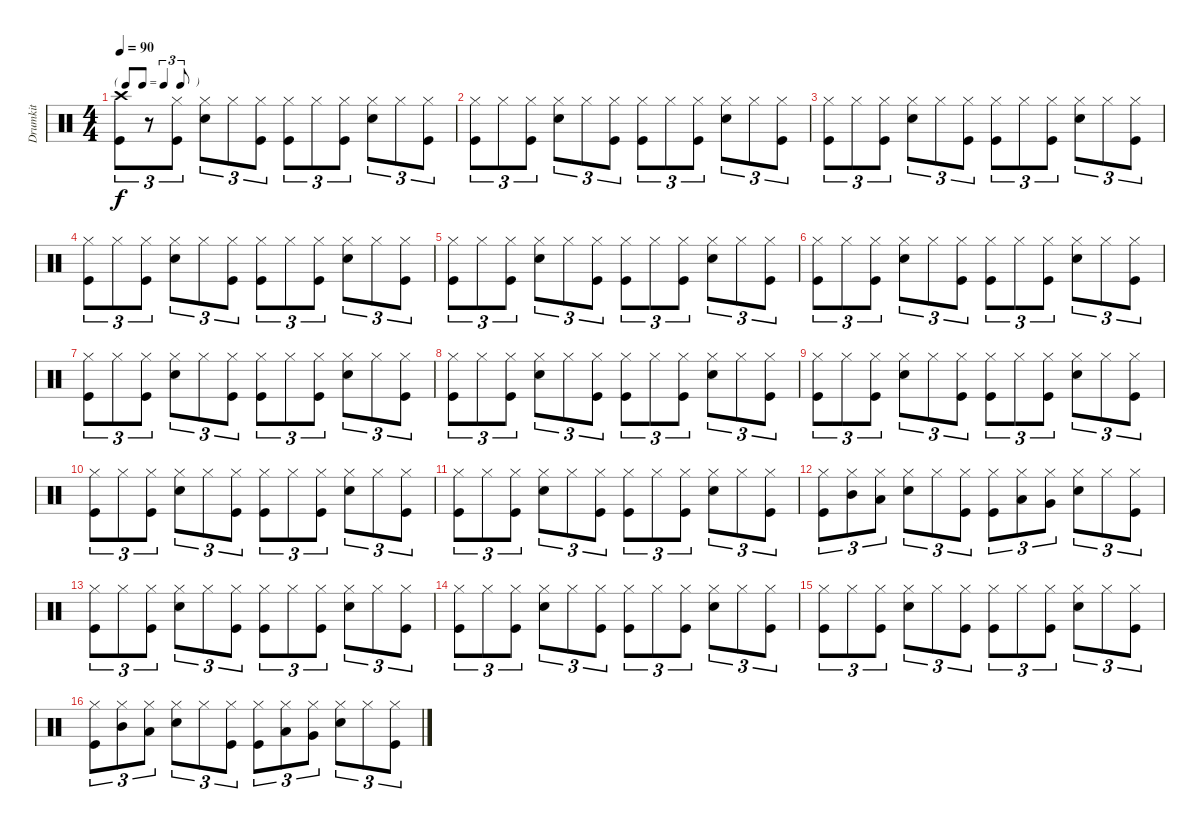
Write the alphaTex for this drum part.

\track ("Drumkit" "Drumkit") {instrument percussion}
\staff {score}
\articulation defaults
\ts (4 4)
\tf triplet8th
\tempo 90
\clef neutral
\ks c
("Crash high (hit)" "Kick (hit)").8{tu (3 2) dy f} r.8{tu (3 2)} ("Hi-Hat (closed)" "Kick (hit)").8{tu (3 2)} ("Hi-Hat (closed)" "Snare (hit) 2").8{tu (3 2)} "Hi-Hat (closed)".8{tu (3 2)} ("Hi-Hat (closed)" "Kick (hit)").8{tu (3 2)} ("Hi-Hat (closed)" "Kick (hit)").8{tu (3 2)} "Hi-Hat (closed)".8{tu (3 2)} ("Hi-Hat (closed)" "Kick (hit)").8{tu (3 2)} ("Hi-Hat (closed)" "Snare (hit) 2").8{tu (3 2)} "Hi-Hat (closed)".8{tu (3 2)} ("Hi-Hat (closed)" "Kick (hit)").8{tu (3 2)} |
("Hi-Hat (closed)" "Kick (hit)").8{tu (3 2)} "Hi-Hat (closed)".8{tu (3 2)} ("Hi-Hat (closed)" "Kick (hit)").8{tu (3 2)} ("Hi-Hat (closed)" "Snare (hit) 2").8{tu (3 2)} "Hi-Hat (closed)".8{tu (3 2)} ("Hi-Hat (closed)" "Kick (hit)").8{tu (3 2)} ("Hi-Hat (closed)" "Kick (hit)").8{tu (3 2)} "Hi-Hat (closed)".8{tu (3 2)} ("Hi-Hat (closed)" "Kick (hit)").8{tu (3 2)} ("Hi-Hat (closed)" "Snare (hit) 2").8{tu (3 2)} "Hi-Hat (closed)".8{tu (3 2)} ("Hi-Hat (closed)" "Kick (hit)").8{tu (3 2)} |
("Hi-Hat (closed)" "Kick (hit)").8{tu (3 2)} "Hi-Hat (closed)".8{tu (3 2)} ("Hi-Hat (closed)" "Kick (hit)").8{tu (3 2)} ("Hi-Hat (closed)" "Snare (hit) 2").8{tu (3 2)} "Hi-Hat (closed)".8{tu (3 2)} ("Hi-Hat (closed)" "Kick (hit)").8{tu (3 2)} ("Hi-Hat (closed)" "Kick (hit)").8{tu (3 2)} "Hi-Hat (closed)".8{tu (3 2)} ("Hi-Hat (closed)" "Kick (hit)").8{tu (3 2)} ("Hi-Hat (closed)" "Snare (hit) 2").8{tu (3 2)} "Hi-Hat (closed)".8{tu (3 2)} ("Hi-Hat (closed)" "Kick (hit)").8{tu (3 2)} |
("Hi-Hat (closed)" "Kick (hit)").8{tu (3 2)} "Hi-Hat (closed)".8{tu (3 2)} ("Hi-Hat (closed)" "Kick (hit)").8{tu (3 2)} ("Hi-Hat (closed)" "Snare (hit) 2").8{tu (3 2)} "Hi-Hat (closed)".8{tu (3 2)} ("Hi-Hat (closed)" "Kick (hit)").8{tu (3 2)} ("Hi-Hat (closed)" "Kick (hit)").8{tu (3 2)} "Hi-Hat (closed)".8{tu (3 2)} ("Hi-Hat (closed)" "Kick (hit)").8{tu (3 2)} ("Hi-Hat (closed)" "Snare (hit) 2").8{tu (3 2)} "Hi-Hat (closed)".8{tu (3 2)} ("Hi-Hat (closed)" "Kick (hit)").8{tu (3 2)} |
("Hi-Hat (closed)" "Kick (hit)").8{tu (3 2)} "Hi-Hat (closed)".8{tu (3 2)} ("Hi-Hat (closed)" "Kick (hit)").8{tu (3 2)} ("Hi-Hat (closed)" "Snare (hit) 2").8{tu (3 2)} "Hi-Hat (closed)".8{tu (3 2)} ("Hi-Hat (closed)" "Kick (hit)").8{tu (3 2)} ("Hi-Hat (closed)" "Kick (hit)").8{tu (3 2)} "Hi-Hat (closed)".8{tu (3 2)} ("Hi-Hat (closed)" "Kick (hit)").8{tu (3 2)} ("Hi-Hat (closed)" "Snare (hit) 2").8{tu (3 2)} "Hi-Hat (closed)".8{tu (3 2)} ("Hi-Hat (closed)" "Kick (hit)").8{tu (3 2)} |
("Hi-Hat (closed)" "Kick (hit)").8{tu (3 2)} "Hi-Hat (closed)".8{tu (3 2)} ("Hi-Hat (closed)" "Kick (hit)").8{tu (3 2)} ("Hi-Hat (closed)" "Snare (hit) 2").8{tu (3 2)} "Hi-Hat (closed)".8{tu (3 2)} ("Hi-Hat (closed)" "Kick (hit)").8{tu (3 2)} ("Hi-Hat (closed)" "Kick (hit)").8{tu (3 2)} "Hi-Hat (closed)".8{tu (3 2)} ("Hi-Hat (closed)" "Kick (hit)").8{tu (3 2)} ("Hi-Hat (closed)" "Snare (hit) 2").8{tu (3 2)} "Hi-Hat (closed)".8{tu (3 2)} ("Hi-Hat (closed)" "Kick (hit)").8{tu (3 2)} |
("Hi-Hat (closed)" "Kick (hit)").8{tu (3 2)} "Hi-Hat (closed)".8{tu (3 2)} ("Hi-Hat (closed)" "Kick (hit)").8{tu (3 2)} ("Hi-Hat (closed)" "Snare (hit) 2").8{tu (3 2)} "Hi-Hat (closed)".8{tu (3 2)} ("Hi-Hat (closed)" "Kick (hit)").8{tu (3 2)} ("Hi-Hat (closed)" "Kick (hit)").8{tu (3 2)} "Hi-Hat (closed)".8{tu (3 2)} ("Hi-Hat (closed)" "Kick (hit)").8{tu (3 2)} ("Hi-Hat (closed)" "Snare (hit) 2").8{tu (3 2)} "Hi-Hat (closed)".8{tu (3 2)} ("Hi-Hat (closed)" "Kick (hit)").8{tu (3 2)} |
("Hi-Hat (closed)" "Kick (hit)").8{tu (3 2)} "Hi-Hat (closed)".8{tu (3 2)} ("Hi-Hat (closed)" "Kick (hit)").8{tu (3 2)} ("Hi-Hat (closed)" "Snare (hit) 2").8{tu (3 2)} "Hi-Hat (closed)".8{tu (3 2)} ("Hi-Hat (closed)" "Kick (hit)").8{tu (3 2)} ("Hi-Hat (closed)" "Kick (hit)").8{tu (3 2)} "Hi-Hat (closed)".8{tu (3 2)} ("Hi-Hat (closed)" "Kick (hit)").8{tu (3 2)} ("Hi-Hat (closed)" "Snare (hit) 2").8{tu (3 2)} "Hi-Hat (closed)".8{tu (3 2)} ("Hi-Hat (closed)" "Kick (hit)").8{tu (3 2)} |
("Hi-Hat (closed)" "Kick (hit)").8{tu (3 2)} "Hi-Hat (closed)".8{tu (3 2)} ("Hi-Hat (closed)" "Kick (hit)").8{tu (3 2)} ("Hi-Hat (closed)" "Snare (hit) 2").8{tu (3 2)} "Hi-Hat (closed)".8{tu (3 2)} ("Hi-Hat (closed)" "Kick (hit)").8{tu (3 2)} ("Hi-Hat (closed)" "Kick (hit)").8{tu (3 2)} "Hi-Hat (closed)".8{tu (3 2)} ("Hi-Hat (closed)" "Kick (hit)").8{tu (3 2)} ("Hi-Hat (closed)" "Snare (hit) 2").8{tu (3 2)} "Hi-Hat (closed)".8{tu (3 2)} ("Hi-Hat (closed)" "Kick (hit)").8{tu (3 2)} |
("Hi-Hat (closed)" "Kick (hit)").8{tu (3 2)} "Hi-Hat (closed)".8{tu (3 2)} ("Hi-Hat (closed)" "Kick (hit)").8{tu (3 2)} ("Hi-Hat (closed)" "Snare (hit) 2").8{tu (3 2)} "Hi-Hat (closed)".8{tu (3 2)} ("Hi-Hat (closed)" "Kick (hit)").8{tu (3 2)} ("Hi-Hat (closed)" "Kick (hit)").8{tu (3 2)} "Hi-Hat (closed)".8{tu (3 2)} ("Hi-Hat (closed)" "Kick (hit)").8{tu (3 2)} ("Hi-Hat (closed)" "Snare (hit) 2").8{tu (3 2)} "Hi-Hat (closed)".8{tu (3 2)} ("Hi-Hat (closed)" "Kick (hit)").8{tu (3 2)} |
("Hi-Hat (closed)" "Kick (hit)").8{tu (3 2)} "Hi-Hat (closed)".8{tu (3 2)} ("Hi-Hat (closed)" "Kick (hit)").8{tu (3 2)} ("Hi-Hat (closed)" "Snare (hit) 2").8{tu (3 2)} "Hi-Hat (closed)".8{tu (3 2)} ("Hi-Hat (closed)" "Kick (hit)").8{tu (3 2)} ("Hi-Hat (closed)" "Kick (hit)").8{tu (3 2)} "Hi-Hat (closed)".8{tu (3 2)} ("Hi-Hat (closed)" "Kick (hit)").8{tu (3 2)} ("Hi-Hat (closed)" "Snare (hit) 2").8{tu (3 2)} "Hi-Hat (closed)".8{tu (3 2)} ("Hi-Hat (closed)" "Kick (hit)").8{tu (3 2)} |
("Hi-Hat (closed)" "Kick (hit)").8{tu (3 2)} ("Hi-Hat (closed)" "Mid Tom (hit)").8{tu (3 2)} ("Hi-Hat (closed)" "Low Tom (hit)").8{tu (3 2)} ("Hi-Hat (closed)" "Snare (hit) 2").8{tu (3 2)} "Hi-Hat (closed)".8{tu (3 2)} ("Hi-Hat (closed)" "Kick (hit)").8{tu (3 2)} ("Hi-Hat (closed)" "Kick (hit)").8{tu (3 2)} ("Hi-Hat (closed)" "Low Tom (hit)").8{tu (3 2)} ("Hi-Hat (closed)" "Very Low Tom (hit)").8{tu (3 2)} ("Hi-Hat (closed)" "Snare (hit) 2").8{tu (3 2)} "Hi-Hat (closed)".8{tu (3 2)} ("Hi-Hat (closed)" "Kick (hit)").8{tu (3 2)} |
("Hi-Hat (closed)" "Kick (hit)").8{tu (3 2)} "Hi-Hat (closed)".8{tu (3 2)} ("Hi-Hat (closed)" "Kick (hit)").8{tu (3 2)} ("Hi-Hat (closed)" "Snare (hit) 2").8{tu (3 2)} "Hi-Hat (closed)".8{tu (3 2)} ("Hi-Hat (closed)" "Kick (hit)").8{tu (3 2)} ("Hi-Hat (closed)" "Kick (hit)").8{tu (3 2)} "Hi-Hat (closed)".8{tu (3 2)} ("Hi-Hat (closed)" "Kick (hit)").8{tu (3 2)} ("Hi-Hat (closed)" "Snare (hit) 2").8{tu (3 2)} "Hi-Hat (closed)".8{tu (3 2)} ("Hi-Hat (closed)" "Kick (hit)").8{tu (3 2)} |
("Hi-Hat (closed)" "Kick (hit)").8{tu (3 2)} "Hi-Hat (closed)".8{tu (3 2)} ("Hi-Hat (closed)" "Kick (hit)").8{tu (3 2)} ("Hi-Hat (closed)" "Snare (hit) 2").8{tu (3 2)} "Hi-Hat (closed)".8{tu (3 2)} ("Hi-Hat (closed)" "Kick (hit)").8{tu (3 2)} ("Hi-Hat (closed)" "Kick (hit)").8{tu (3 2)} "Hi-Hat (closed)".8{tu (3 2)} ("Hi-Hat (closed)" "Kick (hit)").8{tu (3 2)} ("Hi-Hat (closed)" "Snare (hit) 2").8{tu (3 2)} "Hi-Hat (closed)".8{tu (3 2)} ("Hi-Hat (closed)" "Kick (hit)").8{tu (3 2)} |
("Hi-Hat (closed)" "Kick (hit)").8{tu (3 2)} "Hi-Hat (closed)".8{tu (3 2)} ("Hi-Hat (closed)" "Kick (hit)").8{tu (3 2)} ("Hi-Hat (closed)" "Snare (hit) 2").8{tu (3 2)} "Hi-Hat (closed)".8{tu (3 2)} ("Hi-Hat (closed)" "Kick (hit)").8{tu (3 2)} ("Hi-Hat (closed)" "Kick (hit)").8{tu (3 2)} "Hi-Hat (closed)".8{tu (3 2)} ("Hi-Hat (closed)" "Kick (hit)").8{tu (3 2)} ("Hi-Hat (closed)" "Snare (hit) 2").8{tu (3 2)} "Hi-Hat (closed)".8{tu (3 2)} ("Hi-Hat (closed)" "Kick (hit)").8{tu (3 2)} |
("Hi-Hat (closed)" "Kick (hit)").8{tu (3 2)} ("Hi-Hat (closed)" "Mid Tom (hit)").8{tu (3 2)} ("Hi-Hat (closed)" "Low Tom (hit)").8{tu (3 2)} ("Hi-Hat (closed)" "Snare (hit) 2").8{tu (3 2)} "Hi-Hat (closed)".8{tu (3 2)} ("Hi-Hat (closed)" "Kick (hit)").8{tu (3 2)} ("Hi-Hat (closed)" "Kick (hit)").8{tu (3 2)} ("Hi-Hat (closed)" "Low Tom (hit)").8{tu (3 2)} ("Hi-Hat (closed)" "Very Low Tom (hit)").8{tu (3 2)} ("Hi-Hat (closed)" "Snare (hit) 2").8{tu (3 2)} "Hi-Hat (closed)".8{tu (3 2)} ("Hi-Hat (closed)" "Kick (hit)").8{tu (3 2)}
